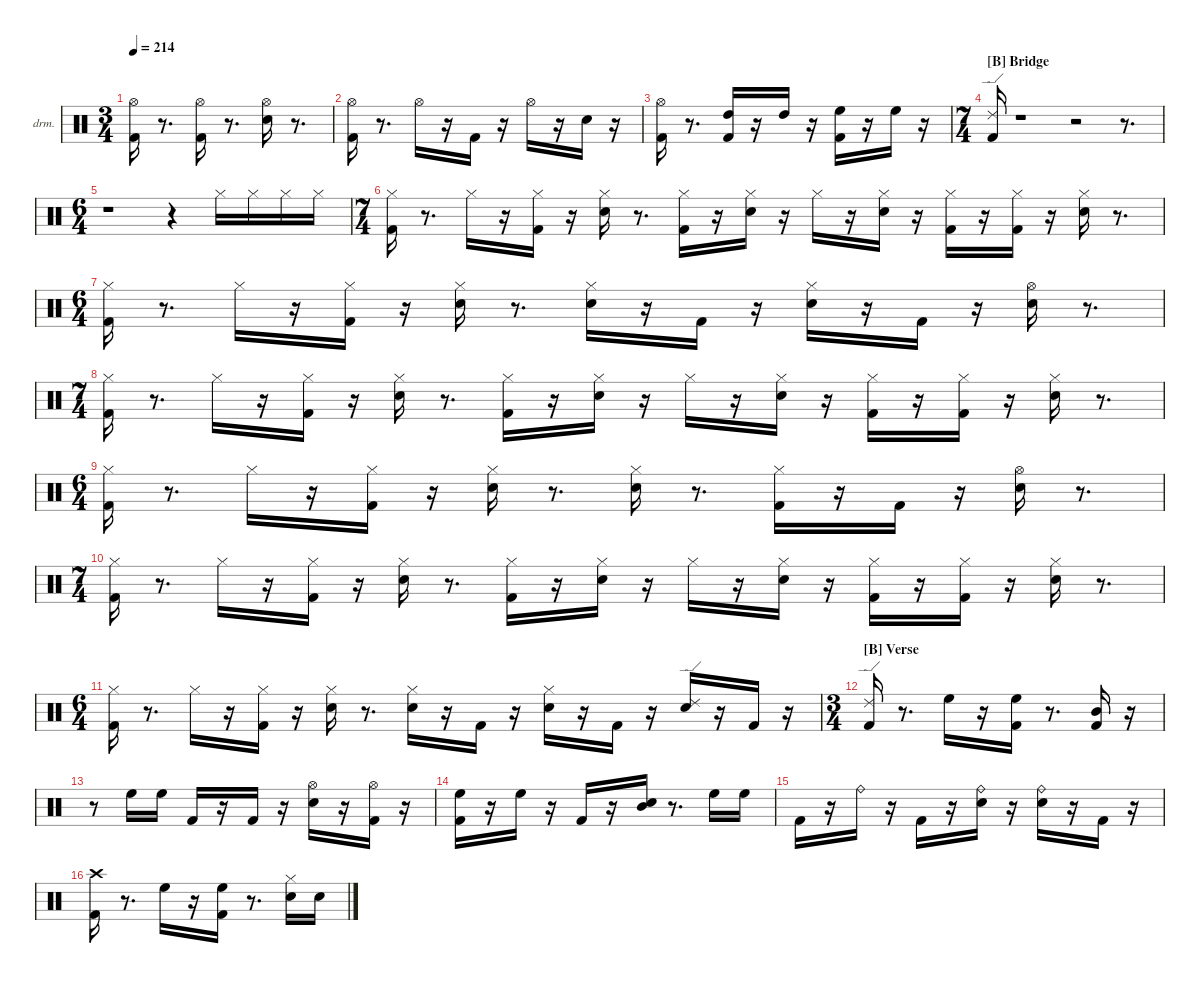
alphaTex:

\hideDynamics
\bracketExtendMode nobrackets
\firstSystemTrackNameOrientation horizontal
\track ("EZdrummer 3" "drm.") {instrument percussion}
\staff {score}
\articulation defaults
\ts (3 4)
\tempo 214
\clef neutral
\ks aminor
("Kick (hit) 2" "Hi-Hat (open)"{acc #}).16{dy fff} r.8{d} ("Kick (hit) 2" "Hi-Hat (open)"{acc #}).16{dy f} r.8{d} ("Snare (hit) 2" "Hi-Hat (open)"{acc #}).16 r.8{d} |
("Kick (hit) 2" "Hi-Hat (open)"{acc #}).16{dy fff} r.8{d} "Hi-Hat (open)"{acc #}.16{dy mp} r.16 "Kick (hit) 2".16{dy f} r.16 "Hi-Hat (open)"{acc #}.16 r.16 "Snare (hit) 2".16{dy ff} r.16 |
("Kick (hit) 2" "Hi-Hat (open)"{acc #}).16{dy fff} r.8{d} ("Kick (hit) 2" "High Tom (hit)").16{dy mf} r.16 "High Tom (hit)".16{dy mp} r.16 ("Kick (hit) 2" "High Floor Tom (hit)").16{dy ff} r.16 "High Floor Tom (hit)".16{dy mp} r.16 |
\ts (7 4)
\section ("B" "Bridge")
("Kick (hit) 2" "Ride (edge) 2").16{dy fff} r.1 r.2 r.8{d} |
\ts (6 4)
r.1 r.4 "Hi-Hat (closed)"{acc #}.16{dy ff} "Hi-Hat (closed)"{acc #}.16{dy mf} "Hi-Hat (closed)"{acc #}.16{dy ff} "Hi-Hat (closed)"{acc #}.16{dy mp} |
\ts (7 4)
("Kick (hit) 2" "Hi-Hat (closed)"{acc #}).16{dy ff} r.8{d} "Hi-Hat (closed)"{acc #}.16{dy mf} r.16 ("Kick (hit) 2" "Hi-Hat (closed)"{acc #}).16{dy f} r.16 ("Snare (hit) 2" "Hi-Hat (closed)"{acc #}).16 r.8{d} ("Kick (hit) 2" "Hi-Hat (closed)"{acc #}).16 r.16 ("Snare (hit) 2" "Hi-Hat (closed)"{acc #}).16 r.16 "Hi-Hat (closed)"{acc #}.16{dy p} r.16 ("Snare (hit) 2" "Hi-Hat (closed)"{acc #}).16{dy f} r.16 ("Kick (hit) 2" "Hi-Hat (closed)"{acc #}).16 r.16 ("Kick (hit) 2" "Hi-Hat (closed)"{acc #}).16 r.16 ("Snare (hit) 2" "Hi-Hat (closed)"{acc #}).16 r.8{d} |
\ts (6 4)
("Kick (hit) 2" "Hi-Hat (closed)"{acc #}).16 r.8{d} "Hi-Hat (closed)"{acc #}.16{dy mf} r.16 ("Kick (hit) 2" "Hi-Hat (closed)"{acc #}).16{dy f} r.16 ("Snare (hit) 2" "Hi-Hat (closed)"{acc #}).16 r.8{d} ("Snare (hit) 2" "Hi-Hat (closed)"{acc #}).16{dy fff} r.16 "Kick (hit) 2".16{dy mf} r.16 ("Snare (hit) 2" "Hi-Hat (closed)"{acc #}).16 r.16 "Kick (hit) 2".16 r.16 ("Snare (hit) 2" "Hi-Hat (open)"{acc #}).16{dy ff} r.8{d} |
\ts (7 4)
("Kick (hit) 2" "Hi-Hat (closed)"{acc #}).16{dy f} r.8{d} "Hi-Hat (closed)"{acc #}.16{dy mf} r.16 ("Kick (hit) 2" "Hi-Hat (closed)"{acc #}).16{dy pp} r.16 ("Snare (hit) 2" "Hi-Hat (closed)"{acc #}).16{dy ff} r.8{d} ("Kick (hit) 2" "Hi-Hat (closed)"{acc #}).16{dy f} r.16 ("Snare (hit) 2" "Hi-Hat (closed)"{acc #}).16 r.16 "Hi-Hat (closed)"{acc #}.16{dy p} r.16 ("Snare (hit) 2" "Hi-Hat (closed)"{acc #}).16{dy f} r.16 ("Kick (hit) 2" "Hi-Hat (closed)"{acc #}).16 r.16 ("Kick (hit) 2" "Hi-Hat (closed)"{acc #}).16 r.16 ("Snare (hit) 2" "Hi-Hat (closed)"{acc #}).16 r.8{d} |
\ts (6 4)
("Kick (hit) 2" "Hi-Hat (closed)"{acc #}).16 r.8{d} "Hi-Hat (closed)"{acc #}.16{dy mf} r.16 ("Kick (hit) 2" "Hi-Hat (closed)"{acc #}).16{dy pp} r.16 ("Snare (hit) 2" "Hi-Hat (closed)"{acc #}).16{dy f} r.8{d} ("Snare (hit) 2" "Hi-Hat (closed)"{acc #}).16{dy fff} r.8{d} ("Kick (hit) 2" "Hi-Hat (closed)"{acc #}).16{dy mf} r.16 "Kick (hit) 2".16{dy ff} r.16 ("Snare (hit) 2" "Hi-Hat (open)"{acc #}).16 r.8{d} |
\ts (7 4)
("Kick (hit) 2" "Hi-Hat (closed)"{acc #}).16{dy f} r.8{d} "Hi-Hat (closed)"{acc #}.16{dy mf} r.16 ("Kick (hit) 2" "Hi-Hat (closed)"{acc #}).16{dy f} r.16 ("Snare (hit) 2" "Hi-Hat (closed)"{acc #}).16 r.8{d} ("Kick (hit) 2" "Hi-Hat (closed)"{acc #}).16 r.16 ("Snare (hit) 2" "Hi-Hat (closed)"{acc #}).16 r.16 "Hi-Hat (closed)"{acc #}.16{dy p} r.16 ("Snare (hit) 2" "Hi-Hat (closed)"{acc #}).16{dy f} r.16 ("Kick (hit) 2" "Hi-Hat (closed)"{acc #}).16 r.16 ("Kick (hit) 2" "Hi-Hat (closed)"{acc #}).16 r.16 ("Snare (hit) 2" "Hi-Hat (closed)"{acc #}).16 r.8{d} |
\ts (6 4)
("Kick (hit) 2" "Hi-Hat (closed)"{acc #}).16 r.8{d} "Hi-Hat (closed)"{acc #}.16{dy mf} r.16 ("Kick (hit) 2" "Hi-Hat (closed)"{acc #}).16{dy pp} r.16 ("Snare (hit) 2" "Hi-Hat (closed)"{acc #}).16{dy f} r.8{d} ("Snare (hit) 2" "Hi-Hat (closed)"{acc #}).16{dy fff} r.16 "Kick (hit) 2".16{dy mf} r.16 ("Snare (hit) 2" "Hi-Hat (closed)"{acc #}).16 r.16 "Kick (hit) 2".16 r.16 ("Snare (hit) 2" "Ride (edge) 2").16{dy ff} r.16 "Kick (hit) 2".16{dy mf} r.16 |
\ts (3 4)
\section ("B" "Verse")
("Kick (hit) 2" "Ride (edge) 2").16{dy fff} r.8{d} "High Floor Tom (hit)".16{dy mf} r.16 ("Kick (hit) 2" "High Floor Tom (hit)").16{dy fff} r.8{d} ("Kick (hit) 2" "Mid Tom (hit)").16{dy ff} r.16 |
r.8 "High Floor Tom (hit)".16{dy f} "High Floor Tom (hit)".16{dy mp} "Kick (hit) 2".16{dy mf} r.16 "Kick (hit) 2".16{dy fff} r.16 ("Snare (hit) 2" "Hi-Hat (open)"{acc #}).16{dy ff} r.16 ("Kick (hit) 2" "Hi-Hat (open)"{acc #}).16{dy mp} r.16 |
("Kick (hit) 2" "High Floor Tom (hit)").16{dy fff} r.16 "High Floor Tom (hit)".16{dy mf} r.16 "Kick (hit) 2".16{dy mp} r.16 ("Snare (hit) 2" "Mid Tom (hit)").16{dy fff} r.8{d} "High Floor Tom (hit)".16{dy ff} "High Floor Tom (hit)".16{dy mf} |
"Kick (hit) 2".16 r.16 "Ride (bell)".16{dy fff} r.16 "Kick (hit) 2".16{dy ff} r.16 ("Snare (hit) 2" "Ride (bell)").16{dy f} r.16 ("Snare (hit) 2" "Ride (bell)").16{dy fff} r.16 "Kick (hit) 2".16{dy mf} r.16 |
("Kick (hit) 2" "Crash high (hit)"{acc #}).16{dy fff} r.8{d} "High Floor Tom (hit)".16 r.16 ("Kick (hit) 2" "High Floor Tom (hit)").16{dy f} r.8{d} ("Snare (hit) 2" "Hi-Hat (closed)"{acc #}).16{dy p} "Snare (hit) 2".16
